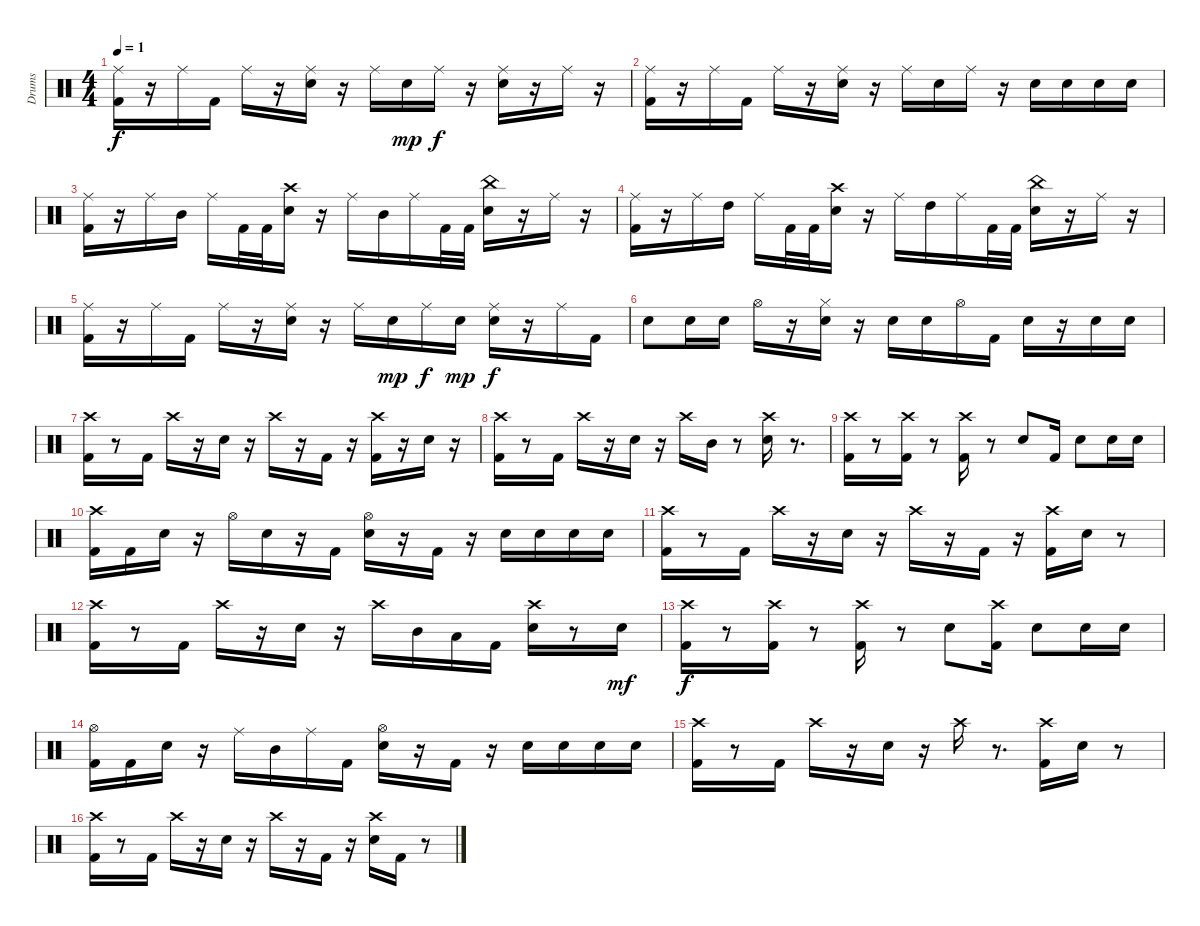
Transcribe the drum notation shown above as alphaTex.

\track ("Drums" "Drums") {instrument percussion}
\staff {score}
\articulation defaults
\ts (4 4)
\tempo 1
\clef neutral
\ks c
("Kick (hit) 2" "Ride (middle)").16{dy f} r.16 "Ride (middle)".16 "Kick (hit) 2".16 "Ride (middle)".16 r.16 ("Snare (hit) 2" "Ride (middle)").16 r.16 "Ride (middle)".16 "Snare (hit) 2".16{dy mp} "Ride (middle)".16{dy f} r.16 ("Snare (hit) 2" "Ride (middle)").16 r.16 "Ride (middle)".16 r.16 |
("Kick (hit) 2" "Ride (middle)").16 r.16 "Ride (middle)".16 "Kick (hit) 2".16 "Ride (middle)".16 r.16 ("Snare (hit) 2" "Ride (middle)").16 r.16 "Ride (middle)".16 "Snare (hit) 2".16 "Ride (middle)".16 r.16 "Snare (hit) 2".16 "Snare (hit) 2".16 "Snare (hit) 2".16 "Snare (hit) 2".16 |
("Kick (hit) 2" "Ride (middle)").16 r.16 "Ride (middle)".16 "Mid Tom (hit)".16 "Ride (middle)".16 "Kick (hit) 2".32 "Kick (hit) 2".32 ("Snare (hit) 2" "Crash high (hit)").16 r.16 "Ride (middle)".16 "Mid Tom (hit)".16 "Ride (middle)".16 "Kick (hit) 2".32 "Kick (hit) 2".32 ("Snare (hit) 2" "China (hit)").16 r.16 "Ride (middle)".16 r.16 |
("Kick (hit) 2" "Ride (middle)").16 r.16 "Ride (middle)".16 "High Tom (hit)".16 "Ride (middle)".16 "Kick (hit) 2".32 "Kick (hit) 2".32 ("Snare (hit) 2" "Crash high (hit)").16 r.16 "Ride (middle)".16 "High Tom (hit)".16 "Ride (middle)".16 "Kick (hit) 2".32 "Kick (hit) 2".32 ("Snare (hit) 2" "China (hit)").16 r.16 "Ride (middle)".16 r.16 |
("Kick (hit) 2" "Ride (middle)").16 r.16 "Ride (middle)".16 "Kick (hit) 2".16 "Ride (middle)".16 r.16 ("Snare (hit) 2" "Ride (middle)").16 r.16 "Ride (middle)".16 "Snare (hit) 2".16{dy mp} "Ride (middle)".16{dy f} "Snare (hit) 2".16{dy mp} ("Snare (hit) 2" "Ride (middle)").16{dy f} r.16 "Ride (middle)".16 "Kick (hit) 2".16 |
"Snare (hit) 2".8 "Snare (hit) 2".16 "Snare (hit) 2".16 "Hi-Hat (open)".16 r.16 ("Snare (hit) 2" "Hi-Hat (closed)").16 r.16 "Snare (hit) 2".16 "Snare (hit) 2".16 "Hi-Hat (open)".16 "Kick (hit) 2".16 "Snare (hit) 2".16 r.16 "Snare (hit) 2".16 "Snare (hit) 2".16 |
("Kick (hit) 2" "Crash high (hit)").16 r.8 "Kick (hit) 2".16 "Crash high (hit)".16 r.16 "Snare (hit) 2".16 r.16 "Crash high (hit)".16 r.16 "Kick (hit) 2".16 r.16 ("Kick (hit) 2" "Crash high (hit)").16 r.16 "Snare (hit) 2".16 r.16 |
("Kick (hit) 2" "Crash high (hit)").16 r.8 "Kick (hit) 2".16 "Crash high (hit)".16 r.16 "Snare (hit) 2".16 r.16 "Crash high (hit)".16 "Mid Tom (hit)".16 r.8 ("Snare (hit) 2" "Crash high (hit)").16 r.8{d} |
("Kick (hit) 2" "Crash high (hit)").16 r.8 ("Kick (hit) 2" "Crash high (hit)").16 r.8 ("Kick (hit) 2" "Crash high (hit)").16 r.8 "Snare (hit) 2".8 "Kick (hit) 2".16 "Snare (hit) 2".8 "Snare (hit) 2".16 "Snare (hit) 2".16 |
("Kick (hit) 2" "Crash high (hit)").16 "Kick (hit) 2".16 "Snare (hit) 2".16 r.16 "Hi-Hat (open)".16 "Snare (hit) 2".16 r.16 "Kick (hit) 2".16 ("Snare (hit) 2" "Hi-Hat (open)").16 r.16 "Kick (hit) 2".16 r.16 "Snare (hit) 2".16 "Snare (hit) 2".16 "Snare (hit) 2".16 "Snare (hit) 2".16 |
("Kick (hit) 2" "Crash high (hit)").16 r.8 "Kick (hit) 2".16 "Crash high (hit)".16 r.16 "Snare (hit) 2".16 r.16 "Crash high (hit)".16 r.16 "Kick (hit) 2".16 r.16 ("Kick (hit) 2" "Crash high (hit)").16 "Snare (hit) 2".16 r.8 |
("Kick (hit) 2" "Crash high (hit)").16 r.8 "Kick (hit) 2".16 "Crash high (hit)".16 r.16 "Snare (hit) 2".16 r.16 "Crash high (hit)".16 "Mid Tom (hit)".16 "Low Floor Tom (hit)".16 "Kick (hit) 2".16 ("Snare (hit) 2" "Crash high (hit)").16 r.8 "Snare (hit) 2".16{dy mf} |
("Kick (hit) 2" "Crash high (hit)").16{dy f} r.8 ("Kick (hit) 2" "Crash high (hit)").16 r.8 ("Kick (hit) 2" "Crash high (hit)").16 r.8 "Snare (hit) 2".8 ("Kick (hit) 2" "Crash high (hit)").16 "Snare (hit) 2".8 "Snare (hit) 2".16 "Snare (hit) 2".16 |
("Kick (hit) 2" "Hi-Hat (open)").16 "Kick (hit) 2".16 "Snare (hit) 2".16 r.16 "Ride (middle)".16 "Mid Tom (hit)".16 "Ride (middle)".16 "Kick (hit) 2".16 ("Snare (hit) 2" "Hi-Hat (open)").16 r.16 "Kick (hit) 2".16 r.16 "Snare (hit) 2".16 "Snare (hit) 2".16 "Snare (hit) 2".16 "Snare (hit) 2".16 |
("Kick (hit) 2" "Crash high (hit)").16 r.8 "Kick (hit) 2".16 "Crash high (hit)".16 r.16 "Snare (hit) 2".16 r.16 "Crash high (hit)".16 r.8{d} ("Kick (hit) 2" "Crash high (hit)").16 "Snare (hit) 2".16 r.8 |
("Kick (hit) 2" "Crash high (hit)").16 r.8 "Kick (hit) 2".16 "Crash high (hit)".16 r.16 "Snare (hit) 2".16 r.16 "Crash high (hit)".16 r.16 "Kick (hit) 2".16 r.16 ("Snare (hit) 2" "Crash high (hit)").16 "Kick (hit) 2".16 r.8
